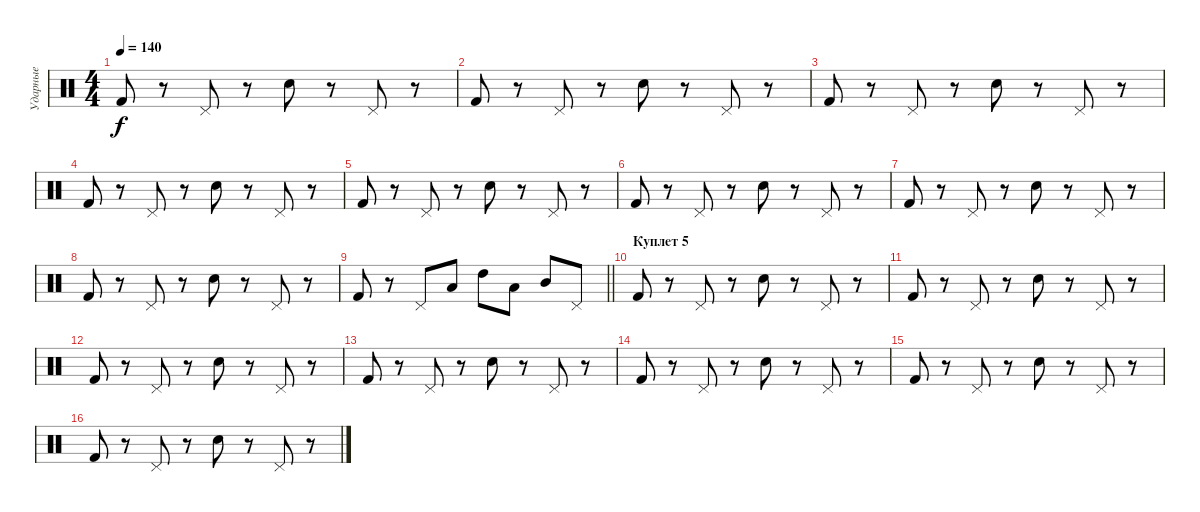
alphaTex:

\track ("Ударные" "Ударные") {instrument percussion}
\staff {score}
\articulation defaults
\ts (4 4)
\tempo 140
\clef neutral
\ks c "Kick (hit) 2".8{dy f}
r.8 "Pedal Hi-Hat (hit)".8 r.8 "Snare (hit) 2".8 r.8 "Pedal Hi-Hat (hit)".8 r.8 |
"Kick (hit) 2".8 r.8 "Pedal Hi-Hat (hit)".8 r.8 "Snare (hit) 2".8 r.8 "Pedal Hi-Hat (hit)".8 r.8 |
"Kick (hit) 2".8 r.8 "Pedal Hi-Hat (hit)".8 r.8 "Snare (hit) 2".8 r.8 "Pedal Hi-Hat (hit)".8 r.8 |
"Kick (hit) 2".8 r.8 "Pedal Hi-Hat (hit)".8 r.8 "Snare (hit) 2".8 r.8 "Pedal Hi-Hat (hit)".8 r.8 |
"Kick (hit) 2".8 r.8 "Pedal Hi-Hat (hit)".8 r.8 "Snare (hit) 2".8 r.8 "Pedal Hi-Hat (hit)".8 r.8 |
"Kick (hit) 2".8 r.8 "Pedal Hi-Hat (hit)".8 r.8 "Snare (hit) 2".8 r.8 "Pedal Hi-Hat (hit)".8 r.8 |
"Kick (hit) 2".8 r.8 "Pedal Hi-Hat (hit)".8 r.8 "Snare (hit) 2".8 r.8 "Pedal Hi-Hat (hit)".8 r.8 |
"Kick (hit) 2".8 r.8 "Pedal Hi-Hat (hit)".8 r.8 "Snare (hit) 2".8 r.8 "Pedal Hi-Hat (hit)".8 r.8 |
\barLineRight lightlight "Kick (hit) 2".8
r.8 "Pedal Hi-Hat (hit)".8 "Low Tom (hit)".8 "High Tom (hit)".8 "Low Tom (hit)".8 "Mid Tom (hit)".8 "Pedal Hi-Hat (hit)".8 |
\section ("" "Куплет 5")
"Kick (hit) 2".8 r.8 "Pedal Hi-Hat (hit)".8 r.8 "Snare (hit) 2".8 r.8 "Pedal Hi-Hat (hit)".8 r.8 |
"Kick (hit) 2".8 r.8 "Pedal Hi-Hat (hit)".8 r.8 "Snare (hit) 2".8 r.8 "Pedal Hi-Hat (hit)".8 r.8 |
"Kick (hit) 2".8 r.8 "Pedal Hi-Hat (hit)".8 r.8 "Snare (hit) 2".8 r.8 "Pedal Hi-Hat (hit)".8 r.8 |
"Kick (hit) 2".8 r.8 "Pedal Hi-Hat (hit)".8 r.8 "Snare (hit) 2".8 r.8 "Pedal Hi-Hat (hit)".8 r.8 |
"Kick (hit) 2".8 r.8 "Pedal Hi-Hat (hit)".8 r.8 "Snare (hit) 2".8 r.8 "Pedal Hi-Hat (hit)".8 r.8 |
"Kick (hit) 2".8 r.8 "Pedal Hi-Hat (hit)".8 r.8 "Snare (hit) 2".8 r.8 "Pedal Hi-Hat (hit)".8 r.8 |
"Kick (hit) 2".8 r.8 "Pedal Hi-Hat (hit)".8 r.8 "Snare (hit) 2".8 r.8 "Pedal Hi-Hat (hit)".8 r.8
